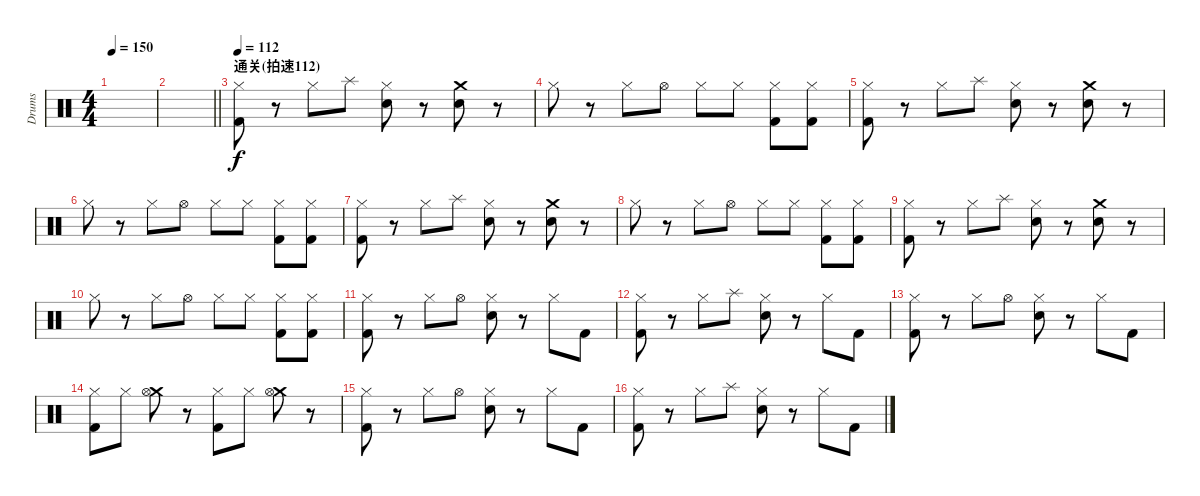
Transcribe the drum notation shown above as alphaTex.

\track ("Drums" "Drums") {instrument percussion}
\staff {score}
\articulation defaults
\ts (4 4)
\tempo 150
\clef neutral
\ks c
|
\barLineRight lightlight
|
\section ("" "通关(拍速112)")
\tempo 112
("Hi-Hat (closed)" "Kick (hit) 2").8{volume 13} r.8 "Hi-Hat (closed)".8 "Splash (hit)".8 ("Hi-Hat (closed)" "Snare (hit) 2").8 r.8 ("Crash medium (hit)" "Snare (hit) 2").8 r.8 |
"Hi-Hat (closed)".8 r.8 "Hi-Hat (closed)".8 "Hi-Hat (open)".8 "Hi-Hat (closed)".8 "Hi-Hat (closed)".8 ("Hi-Hat (closed)" "Kick (hit) 2").8 ("Hi-Hat (closed)" "Kick (hit) 2").8 |
("Hi-Hat (closed)" "Kick (hit) 2").8 r.8 "Hi-Hat (closed)".8 "Splash (hit)".8 ("Hi-Hat (closed)" "Snare (hit) 2").8 r.8 ("Crash medium (hit)" "Snare (hit) 2").8 r.8 |
"Hi-Hat (closed)".8 r.8 "Hi-Hat (closed)".8 "Hi-Hat (open)".8 "Hi-Hat (closed)".8 "Hi-Hat (closed)".8 ("Hi-Hat (closed)" "Kick (hit) 2").8 ("Hi-Hat (closed)" "Kick (hit) 2").8 |
("Hi-Hat (closed)" "Kick (hit) 2").8 r.8 "Hi-Hat (closed)".8 "Splash (hit)".8 ("Hi-Hat (closed)" "Snare (hit) 2").8 r.8 ("Crash medium (hit)" "Snare (hit) 2").8 r.8 |
"Hi-Hat (closed)".8 r.8 "Hi-Hat (closed)".8 "Hi-Hat (open)".8 "Hi-Hat (closed)".8 "Hi-Hat (closed)".8 ("Hi-Hat (closed)" "Kick (hit) 2").8 ("Hi-Hat (closed)" "Kick (hit) 2").8 |
("Hi-Hat (closed)" "Kick (hit) 2").8 r.8 "Hi-Hat (closed)".8 "Splash (hit)".8 ("Hi-Hat (closed)" "Snare (hit) 2").8 r.8 ("Crash medium (hit)" "Snare (hit) 2").8 r.8 |
"Hi-Hat (closed)".8 r.8 "Hi-Hat (closed)".8 "Hi-Hat (open)".8 "Hi-Hat (closed)".8 "Hi-Hat (closed)".8 ("Hi-Hat (closed)" "Kick (hit) 2").8 ("Hi-Hat (closed)" "Kick (hit) 2").8 |
("Hi-Hat (closed)" "Kick (hit) 2").8 r.8 "Hi-Hat (closed)".8 "Hi-Hat (open)".8 ("Hi-Hat (closed)" "Snare (hit) 2").8 r.8 "Hi-Hat (closed)".8 "Kick (hit) 2".8 |
("Hi-Hat (closed)" "Kick (hit) 2").8 r.8 "Hi-Hat (closed)".8 "Splash (hit)".8 ("Hi-Hat (closed)" "Snare (hit) 2").8 r.8 "Hi-Hat (closed)".8 "Kick (hit) 2".8 |
("Hi-Hat (closed)" "Kick (hit) 2").8 r.8 "Hi-Hat (closed)".8 "Hi-Hat (open)".8 ("Hi-Hat (closed)" "Snare (hit) 2").8 r.8 "Hi-Hat (closed)".8 "Kick (hit) 2".8 |
("Hi-Hat (closed)" "Kick (hit) 2").8 "Hi-Hat (closed)".8 ("Crash medium (hit)" "Hi-Hat (open)").8 r.8 ("Hi-Hat (closed)" "Kick (hit) 2").8 "Hi-Hat (closed)".8 ("Crash medium (hit)" "Hi-Hat (open)").8 r.8 |
("Hi-Hat (closed)" "Kick (hit) 2").8 r.8 "Hi-Hat (closed)".8 "Hi-Hat (open)".8 ("Hi-Hat (closed)" "Snare (hit) 2").8 r.8 "Hi-Hat (closed)".8 "Kick (hit) 2".8 |
("Hi-Hat (closed)" "Kick (hit) 2").8 r.8 "Hi-Hat (closed)".8 "Splash (hit)".8 ("Hi-Hat (closed)" "Snare (hit) 2").8 r.8 "Hi-Hat (closed)".8 "Kick (hit) 2".8
